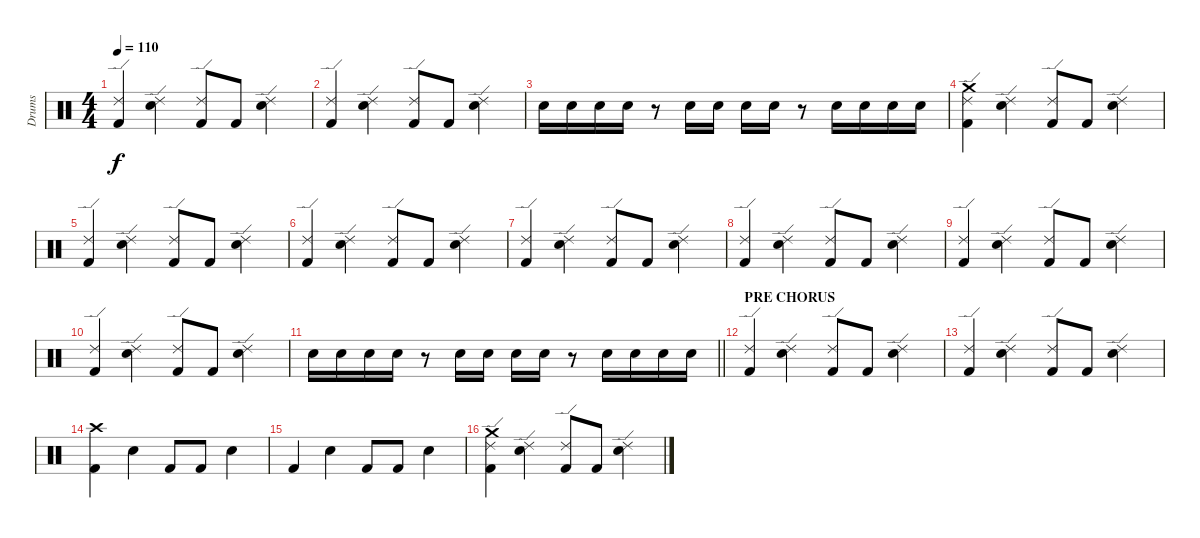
\track ("Drums" "Drums") {instrument percussion}
\staff {score}
\articulation defaults
\ts (4 4)
\tempo 110
\clef neutral
\ks aminor
("Ride (edge) 2" "Kick (hit) 2").4{dy f} ("Ride (edge) 2" "Electric Snare (hit)").4 ("Ride (edge) 2" "Kick (hit) 2").8 "Kick (hit) 2".8 ("Ride (edge) 2" "Electric Snare (hit)").4 |
("Ride (edge) 2" "Kick (hit) 2").4 ("Ride (edge) 2" "Electric Snare (hit)").4 ("Ride (edge) 2" "Kick (hit) 2").8 "Kick (hit) 2".8 ("Ride (edge) 2" "Electric Snare (hit)").4 |
"Electric Snare (hit)".16 "Electric Snare (hit)".16 "Electric Snare (hit)".16 "Electric Snare (hit)".16 r.8 "Electric Snare (hit)".16 "Electric Snare (hit)".16 "Electric Snare (hit)".16 "Electric Snare (hit)".16 r.8 "Electric Snare (hit)".16 "Electric Snare (hit)".16 "Electric Snare (hit)".16 "Electric Snare (hit)".16 |
("Crash medium (hit)" "Ride (edge) 2" "Kick (hit) 2").4 ("Ride (edge) 2" "Electric Snare (hit)").4 ("Ride (edge) 2" "Kick (hit) 2").8 "Kick (hit) 2".8 ("Ride (edge) 2" "Electric Snare (hit)").4 |
("Ride (edge) 2" "Kick (hit) 2").4 ("Ride (edge) 2" "Electric Snare (hit)").4 ("Ride (edge) 2" "Kick (hit) 2").8 "Kick (hit) 2".8 ("Ride (edge) 2" "Electric Snare (hit)").4 |
("Ride (edge) 2" "Kick (hit) 2").4 ("Ride (edge) 2" "Electric Snare (hit)").4 ("Ride (edge) 2" "Kick (hit) 2").8 "Kick (hit) 2".8 ("Ride (edge) 2" "Electric Snare (hit)").4 |
("Ride (edge) 2" "Kick (hit) 2").4 ("Ride (edge) 2" "Electric Snare (hit)").4 ("Ride (edge) 2" "Kick (hit) 2").8 "Kick (hit) 2".8 ("Ride (edge) 2" "Electric Snare (hit)").4 |
("Ride (edge) 2" "Kick (hit) 2").4 ("Ride (edge) 2" "Electric Snare (hit)").4 ("Ride (edge) 2" "Kick (hit) 2").8 "Kick (hit) 2".8 ("Ride (edge) 2" "Electric Snare (hit)").4 |
("Ride (edge) 2" "Kick (hit) 2").4 ("Ride (edge) 2" "Electric Snare (hit)").4 ("Ride (edge) 2" "Kick (hit) 2").8 "Kick (hit) 2".8 ("Ride (edge) 2" "Electric Snare (hit)").4 |
("Ride (edge) 2" "Kick (hit) 2").4 ("Ride (edge) 2" "Electric Snare (hit)").4 ("Ride (edge) 2" "Kick (hit) 2").8 "Kick (hit) 2".8 ("Ride (edge) 2" "Electric Snare (hit)").4 |
\barLineRight lightlight "Electric Snare (hit)".16 "Electric Snare (hit)".16 "Electric Snare (hit)".16 "Electric Snare (hit)".16
r.8 "Electric Snare (hit)".16 "Electric Snare (hit)".16 "Electric Snare (hit)".16 "Electric Snare (hit)".16 r.8 "Electric Snare (hit)".16 "Electric Snare (hit)".16 "Electric Snare (hit)".16 "Electric Snare (hit)".16 |
\section ("" "PRE CHORUS")
("Ride (edge) 2" "Kick (hit) 2").4 ("Ride (edge) 2" "Electric Snare (hit)").4 ("Ride (edge) 2" "Kick (hit) 2").8 "Kick (hit) 2".8 ("Ride (edge) 2" "Electric Snare (hit)").4 |
("Ride (edge) 2" "Kick (hit) 2").4 ("Ride (edge) 2" "Electric Snare (hit)").4 ("Ride (edge) 2" "Kick (hit) 2").8 "Kick (hit) 2".8 ("Ride (edge) 2" "Electric Snare (hit)").4 |
("Crash high (hit)" "Kick (hit) 2").4 "Electric Snare (hit)".4 "Kick (hit) 2".8 "Kick (hit) 2".8 "Electric Snare (hit)".4 |
"Kick (hit) 2".4 "Electric Snare (hit)".4 "Kick (hit) 2".8 "Kick (hit) 2".8 "Electric Snare (hit)".4 |
("Crash medium (hit)" "Ride (edge) 2" "Kick (hit) 2").4 ("Ride (edge) 2" "Electric Snare (hit)").4 ("Ride (edge) 2" "Kick (hit) 2").8 "Kick (hit) 2".8 ("Ride (edge) 2" "Electric Snare (hit)").4
